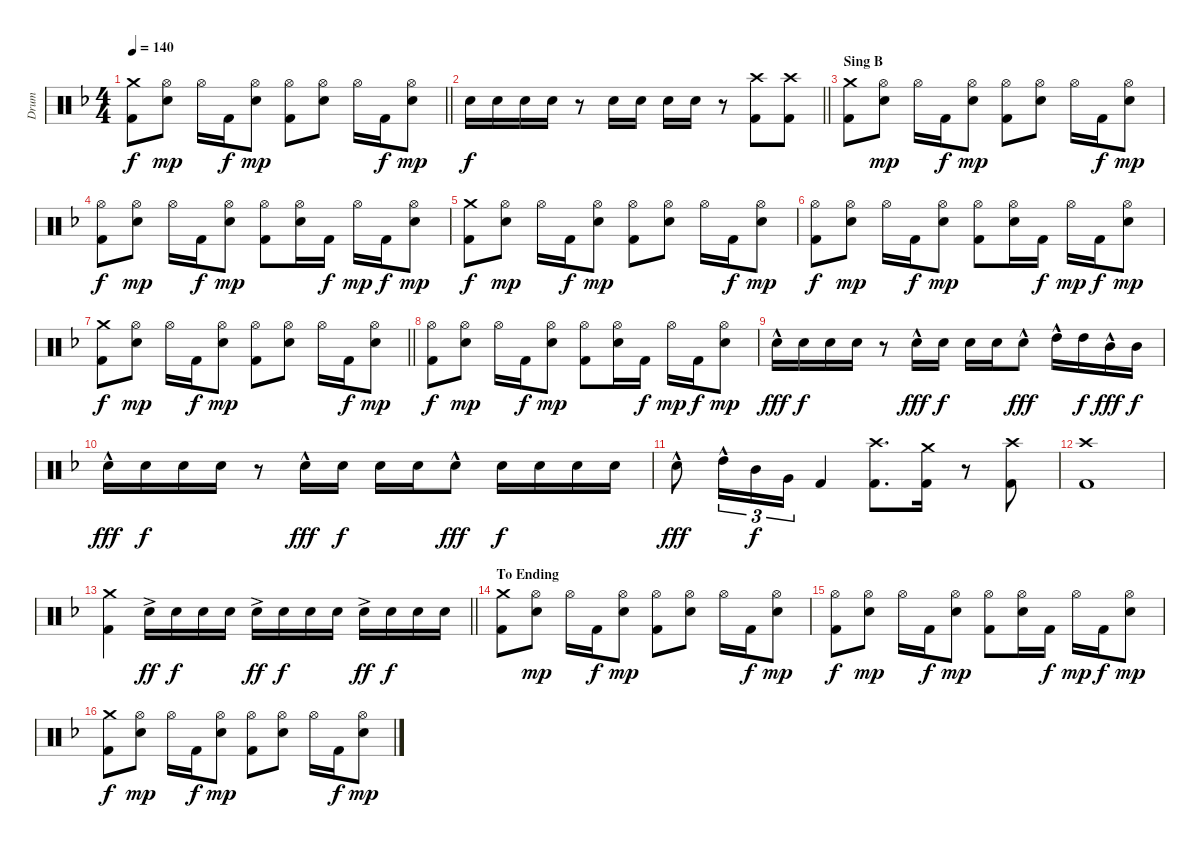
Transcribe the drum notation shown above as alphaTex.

\track ("Drum" "Drum") {instrument percussion}
\staff {score}
\articulation defaults
\ts (4 4)
\section ("" "")
\tempo 140
\clef neutral
\barLineRight lightlight
\ks dminor
("Crash medium (hit)" "Kick (hit) 2").8{dy f} ("Hi-Hat (open)" "Snare (hit) 2").8{dy mp} "Hi-Hat (open)".16 "Kick (hit) 2".16{dy f} ("Hi-Hat (open)" "Snare (hit) 2").8{dy mp} ("Hi-Hat (open)" "Kick (hit) 2").8 ("Hi-Hat (open)" "Snare (hit) 2").8 "Hi-Hat (open)".16 "Kick (hit) 2".16{dy f} ("Hi-Hat (open)" "Snare (hit) 2").8{dy mp} |
\section ("" "")
\barLineRight lightlight "Snare (hit) 2".16{dy f} "Snare (hit) 2".16 "Snare (hit) 2".16 "Snare (hit) 2".16
r.8 "Snare (hit) 2".16 "Snare (hit) 2".16 "Snare (hit) 2".16 "Snare (hit) 2".16 r.8 ("Crash high (hit)" "Kick (hit) 2").8 ("Crash high (hit)" "Kick (hit) 2").8 |
\section ("" "Sing B")
("Crash medium (hit)" "Kick (hit) 2").8 ("Hi-Hat (open)" "Snare (hit) 2").8{dy mp} "Hi-Hat (open)".16 "Kick (hit) 2".16{dy f} ("Hi-Hat (open)" "Snare (hit) 2").8{dy mp} ("Hi-Hat (open)" "Kick (hit) 2").8 ("Hi-Hat (open)" "Snare (hit) 2").8 "Hi-Hat (open)".16 "Kick (hit) 2".16{dy f} ("Hi-Hat (open)" "Snare (hit) 2").8{dy mp} |
("Hi-Hat (open)" "Kick (hit) 2").8{dy f} ("Hi-Hat (open)" "Snare (hit) 2").8{dy mp} "Hi-Hat (open)".16 "Kick (hit) 2".16{dy f} ("Hi-Hat (open)" "Snare (hit) 2").8{dy mp} ("Hi-Hat (open)" "Kick (hit) 2").8 ("Hi-Hat (open)" "Snare (hit) 2").16 "Kick (hit) 2".16{dy f} "Hi-Hat (open)".16{dy mp} "Kick (hit) 2".16{dy f} ("Hi-Hat (open)" "Snare (hit) 2").8{dy mp} |
("Crash medium (hit)" "Kick (hit) 2").8{dy f} ("Hi-Hat (open)" "Snare (hit) 2").8{dy mp} "Hi-Hat (open)".16 "Kick (hit) 2".16{dy f} ("Hi-Hat (open)" "Snare (hit) 2").8{dy mp} ("Hi-Hat (open)" "Kick (hit) 2").8 ("Hi-Hat (open)" "Snare (hit) 2").8 "Hi-Hat (open)".16 "Kick (hit) 2".16{dy f} ("Hi-Hat (open)" "Snare (hit) 2").8{dy mp} |
("Hi-Hat (open)" "Kick (hit) 2").8{dy f} ("Hi-Hat (open)" "Snare (hit) 2").8{dy mp} "Hi-Hat (open)".16 "Kick (hit) 2".16{dy f} ("Hi-Hat (open)" "Snare (hit) 2").8{dy mp} ("Hi-Hat (open)" "Kick (hit) 2").8 ("Hi-Hat (open)" "Snare (hit) 2").16 "Kick (hit) 2".16{dy f} "Hi-Hat (open)".16{dy mp} "Kick (hit) 2".16{dy f} ("Hi-Hat (open)" "Snare (hit) 2").8{dy mp} |
\barLineRight lightlight
("Crash medium (hit)" "Kick (hit) 2").8{dy f} ("Hi-Hat (open)" "Snare (hit) 2").8{dy mp} "Hi-Hat (open)".16 "Kick (hit) 2".16{dy f} ("Hi-Hat (open)" "Snare (hit) 2").8{dy mp} ("Hi-Hat (open)" "Kick (hit) 2").8 ("Hi-Hat (open)" "Snare (hit) 2").8 "Hi-Hat (open)".16 "Kick (hit) 2".16{dy f} ("Hi-Hat (open)" "Snare (hit) 2").8{dy mp} |
("Hi-Hat (open)" "Kick (hit) 2").8{dy f} ("Hi-Hat (open)" "Snare (hit) 2").8{dy mp} "Hi-Hat (open)".16 "Kick (hit) 2".16{dy f} ("Hi-Hat (open)" "Snare (hit) 2").8{dy mp} ("Hi-Hat (open)" "Kick (hit) 2").8 ("Hi-Hat (open)" "Snare (hit) 2").16 "Kick (hit) 2".16{dy f} "Hi-Hat (open)".16{dy mp} "Kick (hit) 2".16{dy f} ("Hi-Hat (open)" "Snare (hit) 2").8{dy mp} |
"Snare (hit) 2"{hac}.16{dy fff} "Snare (hit) 2".16{dy f} "Snare (hit) 2".16 "Snare (hit) 2".16 r.8 "Snare (hit) 2"{hac}.16{dy fff} "Snare (hit) 2".16{dy f} "Snare (hit) 2".16 "Snare (hit) 2".16 "Snare (hit) 2"{hac}.8{dy fff} "High Tom (hit)"{hac}.16 "High Tom (hit)".16{dy f} "Mid Tom (hit)"{hac}.16{dy fff} "Mid Tom (hit)".16{dy f} |
"Snare (hit) 2"{hac}.16{dy fff} "Snare (hit) 2".16{dy f} "Snare (hit) 2".16 "Snare (hit) 2".16 r.8 "Snare (hit) 2"{hac}.16{dy fff} "Snare (hit) 2".16{dy f} "Snare (hit) 2".16 "Snare (hit) 2".16 "Snare (hit) 2"{hac}.8{dy fff} "Snare (hit) 2".16{dy f} "Snare (hit) 2".16 "Snare (hit) 2".16 "Snare (hit) 2".16 |
"Snare (hit) 2"{hac}.8{dy fff} "High Tom (hit)"{hac}.16{tu (3 2)} "Mid Tom (hit)".16{tu (3 2) dy f} "Very Low Tom (hit)".16{tu (3 2)} "Kick (hit) 2".4 ("Crash high (hit)" "Kick (hit) 2").8{d} ("Crash medium (hit)" "Kick (hit) 2").16 r.8 ("Crash high (hit)" "Kick (hit) 2").8 |
("Crash high (hit)" "Kick (hit) 2").1 |
\barLineRight lightlight
("Crash medium (hit)" "Kick (hit) 2").4 "Snare (hit) 2"{ac}.16{dy ff} "Snare (hit) 2".16{dy f} "Snare (hit) 2".16 "Snare (hit) 2".16 "Snare (hit) 2"{ac}.16{dy ff} "Snare (hit) 2".16{dy f} "Snare (hit) 2".16 "Snare (hit) 2".16 "Snare (hit) 2"{ac}.16{dy ff} "Snare (hit) 2".16{dy f} "Snare (hit) 2".16 "Snare (hit) 2".16 |
\section ("" "To Ending")
("Crash medium (hit)" "Kick (hit) 2").8 ("Hi-Hat (open)" "Snare (hit) 2").8{dy mp} "Hi-Hat (open)".16 "Kick (hit) 2".16{dy f} ("Hi-Hat (open)" "Snare (hit) 2").8{dy mp} ("Hi-Hat (open)" "Kick (hit) 2").8 ("Hi-Hat (open)" "Snare (hit) 2").8 "Hi-Hat (open)".16 "Kick (hit) 2".16{dy f} ("Hi-Hat (open)" "Snare (hit) 2").8{dy mp} |
("Hi-Hat (open)" "Kick (hit) 2").8{dy f} ("Hi-Hat (open)" "Snare (hit) 2").8{dy mp} "Hi-Hat (open)".16 "Kick (hit) 2".16{dy f} ("Hi-Hat (open)" "Snare (hit) 2").8{dy mp} ("Hi-Hat (open)" "Kick (hit) 2").8 ("Hi-Hat (open)" "Snare (hit) 2").16 "Kick (hit) 2".16{dy f} "Hi-Hat (open)".16{dy mp} "Kick (hit) 2".16{dy f} ("Hi-Hat (open)" "Snare (hit) 2").8{dy mp} |
("Crash medium (hit)" "Kick (hit) 2").8{dy f} ("Hi-Hat (open)" "Snare (hit) 2").8{dy mp} "Hi-Hat (open)".16 "Kick (hit) 2".16{dy f} ("Hi-Hat (open)" "Snare (hit) 2").8{dy mp} ("Hi-Hat (open)" "Kick (hit) 2").8 ("Hi-Hat (open)" "Snare (hit) 2").8 "Hi-Hat (open)".16 "Kick (hit) 2".16{dy f} ("Hi-Hat (open)" "Snare (hit) 2").8{dy mp}
